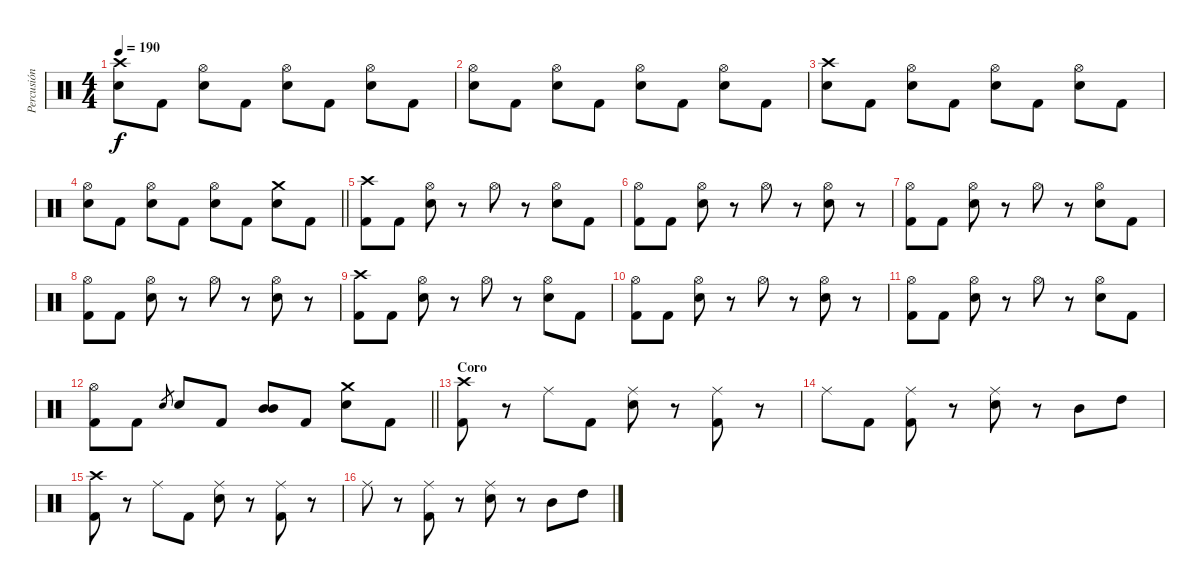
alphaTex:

\track ("Percusión" "Percusión") {instrument percussion}
\staff {score}
\articulation defaults
\ts (4 4)
\tempo 190
\clef neutral
\ks c
("Crash high (hit)" "Electric Snare (hit)").8{dy f} "Kick (hit) 2".8 ("Hi-Hat (open)" "Electric Snare (hit)").8 "Kick (hit) 2".8 ("Hi-Hat (open)" "Electric Snare (hit)").8 "Kick (hit) 2".8 ("Hi-Hat (open)" "Electric Snare (hit)").8 "Kick (hit) 2".8 |
("Hi-Hat (open)" "Electric Snare (hit)").8 "Kick (hit) 2".8 ("Hi-Hat (open)" "Electric Snare (hit)").8 "Kick (hit) 2".8 ("Hi-Hat (open)" "Electric Snare (hit)").8 "Kick (hit) 2".8 ("Hi-Hat (open)" "Electric Snare (hit)").8 "Kick (hit) 2".8 |
("Crash high (hit)" "Electric Snare (hit)").8 "Kick (hit) 2".8 ("Hi-Hat (open)" "Electric Snare (hit)").8 "Kick (hit) 2".8 ("Hi-Hat (open)" "Electric Snare (hit)").8 "Kick (hit) 2".8 ("Hi-Hat (open)" "Electric Snare (hit)").8 "Kick (hit) 2".8 |
\barLineRight lightlight
("Hi-Hat (open)" "Electric Snare (hit)").8 "Kick (hit) 2".8 ("Hi-Hat (open)" "Electric Snare (hit)").8 "Kick (hit) 2".8 ("Hi-Hat (open)" "Electric Snare (hit)").8 "Kick (hit) 2".8 ("Crash medium (hit)" "Electric Snare (hit)").8 "Kick (hit) 2".8 |
("Crash high (hit)" "Kick (hit) 2").8 "Kick (hit) 2".8 ("Hi-Hat (open)" "Electric Snare (hit)").8 r.8 "Hi-Hat (open)".8 r.8 ("Hi-Hat (open)" "Electric Snare (hit)").8 "Kick (hit) 2".8 |
("Hi-Hat (open)" "Kick (hit) 2").8 "Kick (hit) 2".8 ("Hi-Hat (open)" "Electric Snare (hit)").8 r.8 "Hi-Hat (open)".8 r.8 ("Hi-Hat (open)" "Electric Snare (hit)").8 r.8 |
("Hi-Hat (open)" "Kick (hit) 2").8 "Kick (hit) 2".8 ("Hi-Hat (open)" "Electric Snare (hit)").8 r.8 "Hi-Hat (open)".8 r.8 ("Hi-Hat (open)" "Electric Snare (hit)").8 "Kick (hit) 2".8 |
("Hi-Hat (open)" "Kick (hit) 2").8 "Kick (hit) 2".8 ("Hi-Hat (open)" "Electric Snare (hit)").8 r.8 "Hi-Hat (open)".8 r.8 ("Hi-Hat (open)" "Electric Snare (hit)").8 r.8 |
("Crash high (hit)" "Kick (hit) 2").8 "Kick (hit) 2".8 ("Hi-Hat (open)" "Electric Snare (hit)").8 r.8 "Hi-Hat (open)".8 r.8 ("Hi-Hat (open)" "Electric Snare (hit)").8 "Kick (hit) 2".8 |
("Hi-Hat (open)" "Kick (hit) 2").8 "Kick (hit) 2".8 ("Hi-Hat (open)" "Electric Snare (hit)").8 r.8 "Hi-Hat (open)".8 r.8 ("Hi-Hat (open)" "Electric Snare (hit)").8 r.8 |
("Hi-Hat (open)" "Kick (hit) 2").8 "Kick (hit) 2".8 ("Hi-Hat (open)" "Electric Snare (hit)").8 r.8 "Hi-Hat (open)".8 r.8 ("Hi-Hat (open)" "Electric Snare (hit)").8 "Kick (hit) 2".8 |
\barLineRight lightlight
("Hi-Hat (open)" "Kick (hit) 2").8 "Kick (hit) 2".8 "Electric Snare (hit)".8{gr} "Electric Snare (hit)".8 "Kick (hit) 2".8 ("Mid Tom (hit)" "Mid Tom (hit)").8 "Kick (hit) 2".8 ("Crash medium (hit)" "Electric Snare (hit)").8 "Kick (hit) 2".8 |
\section ("" "Coro")
("Crash high (hit)" "Kick (hit) 2").8 r.8 "Ride (middle)".8 "Kick (hit) 2".8 ("Ride (middle)" "Electric Snare (hit)").8 r.8 ("Ride (middle)" "Kick (hit) 2").8 r.8 |
"Ride (middle)".8 "Kick (hit) 2".8 ("Ride (middle)" "Kick (hit) 2").8 r.8 ("Ride (middle)" "Electric Snare (hit)").8 r.8 "Mid Tom (hit)".8 "High Tom (hit)".8 |
("Crash high (hit)" "Kick (hit) 2").8 r.8 "Ride (middle)".8 "Kick (hit) 2".8 ("Ride (middle)" "Electric Snare (hit)").8 r.8 ("Ride (middle)" "Kick (hit) 2").8 r.8 |
"Ride (middle)".8 r.8 ("Ride (middle)" "Kick (hit) 2").8 r.8 ("Ride (middle)" "Electric Snare (hit)").8 r.8 "Mid Tom (hit)".8 "High Tom (hit)".8
